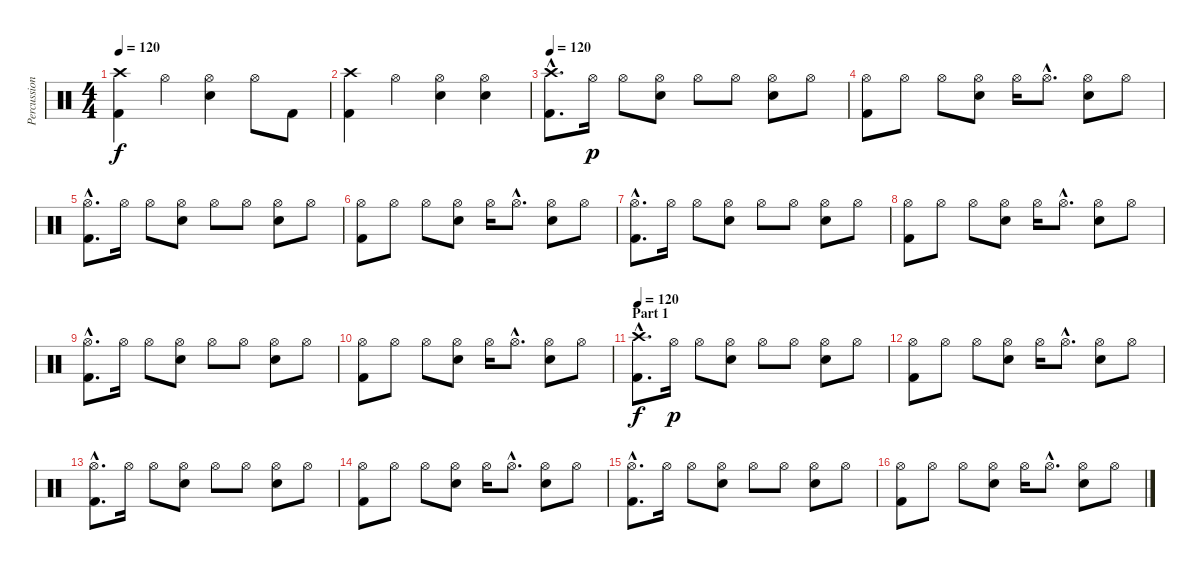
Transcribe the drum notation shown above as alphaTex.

\track ("Percussion" "Percussion") {instrument percussion}
\staff {score}
\articulation defaults
\ts (4 4)
\tempo 120
\clef neutral
\ks c
("Crash high (hit)" "Kick (hit) 2").4{dy f} "Hi-Hat (open)".4 ("Hi-Hat (open)" "Electric Snare (hit)").4 "Hi-Hat (open)".8 "Kick (hit) 2".8 |
("Crash high (hit)" "Kick (hit) 2").4 "Hi-Hat (open)".4 ("Hi-Hat (open)" "Electric Snare (hit)").4 ("Hi-Hat (open)" "Electric Snare (hit)").4 |
\tempo 120
("Crash high (hit)"{hac} "Kick (hit) 2"{hac}).8{d} "Hi-Hat (open)".16{dy p} "Hi-Hat (open)".8 ("Hi-Hat (open)" "Electric Snare (hit)").8 "Hi-Hat (open)".8 "Hi-Hat (open)".8 ("Hi-Hat (open)" "Electric Snare (hit)").8 "Hi-Hat (open)".8 |
("Hi-Hat (open)" "Kick (hit) 2").8 "Hi-Hat (open)".8 "Hi-Hat (open)".8 ("Hi-Hat (open)" "Electric Snare (hit)").8 "Hi-Hat (open)".16 "Hi-Hat (open)"{hac}.8{d} ("Hi-Hat (open)" "Electric Snare (hit)").8 "Hi-Hat (open)".8 |
("Hi-Hat (open)"{hac} "Kick (hit) 2"{hac}).8{d} "Hi-Hat (open)".16 "Hi-Hat (open)".8 ("Hi-Hat (open)" "Electric Snare (hit)").8 "Hi-Hat (open)".8 "Hi-Hat (open)".8 ("Hi-Hat (open)" "Electric Snare (hit)").8 "Hi-Hat (open)".8 |
("Hi-Hat (open)" "Kick (hit) 2").8 "Hi-Hat (open)".8 "Hi-Hat (open)".8 ("Hi-Hat (open)" "Electric Snare (hit)").8 "Hi-Hat (open)".16 "Hi-Hat (open)"{hac}.8{d} ("Hi-Hat (open)" "Electric Snare (hit)").8 "Hi-Hat (open)".8 |
("Hi-Hat (open)"{hac} "Kick (hit) 2"{hac}).8{d} "Hi-Hat (open)".16 "Hi-Hat (open)".8 ("Hi-Hat (open)" "Electric Snare (hit)").8 "Hi-Hat (open)".8 "Hi-Hat (open)".8 ("Hi-Hat (open)" "Electric Snare (hit)").8 "Hi-Hat (open)".8 |
("Hi-Hat (open)" "Kick (hit) 2").8 "Hi-Hat (open)".8 "Hi-Hat (open)".8 ("Hi-Hat (open)" "Electric Snare (hit)").8 "Hi-Hat (open)".16 "Hi-Hat (open)"{hac}.8{d} ("Hi-Hat (open)" "Electric Snare (hit)").8 "Hi-Hat (open)".8 |
("Hi-Hat (open)"{hac} "Kick (hit) 2"{hac}).8{d} "Hi-Hat (open)".16 "Hi-Hat (open)".8 ("Hi-Hat (open)" "Electric Snare (hit)").8 "Hi-Hat (open)".8 "Hi-Hat (open)".8 ("Hi-Hat (open)" "Electric Snare (hit)").8 "Hi-Hat (open)".8 |
("Hi-Hat (open)" "Kick (hit) 2").8 "Hi-Hat (open)".8 "Hi-Hat (open)".8 ("Hi-Hat (open)" "Electric Snare (hit)").8 "Hi-Hat (open)".16 "Hi-Hat (open)"{hac}.8{d} ("Hi-Hat (open)" "Electric Snare (hit)").8 "Hi-Hat (open)".8 |
\section ("" "Part 1")
\tempo 120
("Crash high (hit)"{hac} "Kick (hit) 2"{hac}).8{d dy f} "Hi-Hat (open)".16{dy p} "Hi-Hat (open)".8 ("Hi-Hat (open)" "Electric Snare (hit)").8 "Hi-Hat (open)".8 "Hi-Hat (open)".8 ("Hi-Hat (open)" "Electric Snare (hit)").8 "Hi-Hat (open)".8 |
("Hi-Hat (open)" "Kick (hit) 2").8 "Hi-Hat (open)".8 "Hi-Hat (open)".8 ("Hi-Hat (open)" "Electric Snare (hit)").8 "Hi-Hat (open)".16 "Hi-Hat (open)"{hac}.8{d} ("Hi-Hat (open)" "Electric Snare (hit)").8 "Hi-Hat (open)".8 |
("Hi-Hat (open)"{hac} "Kick (hit) 2"{hac}).8{d} "Hi-Hat (open)".16 "Hi-Hat (open)".8 ("Hi-Hat (open)" "Electric Snare (hit)").8 "Hi-Hat (open)".8 "Hi-Hat (open)".8 ("Hi-Hat (open)" "Electric Snare (hit)").8 "Hi-Hat (open)".8 |
("Hi-Hat (open)" "Kick (hit) 2").8 "Hi-Hat (open)".8 "Hi-Hat (open)".8 ("Hi-Hat (open)" "Electric Snare (hit)").8 "Hi-Hat (open)".16 "Hi-Hat (open)"{hac}.8{d} ("Hi-Hat (open)" "Electric Snare (hit)").8 "Hi-Hat (open)".8 |
("Hi-Hat (open)"{hac} "Kick (hit) 2"{hac}).8{d} "Hi-Hat (open)".16 "Hi-Hat (open)".8 ("Hi-Hat (open)" "Electric Snare (hit)").8 "Hi-Hat (open)".8 "Hi-Hat (open)".8 ("Hi-Hat (open)" "Electric Snare (hit)").8 "Hi-Hat (open)".8 |
("Hi-Hat (open)" "Kick (hit) 2").8 "Hi-Hat (open)".8 "Hi-Hat (open)".8 ("Hi-Hat (open)" "Electric Snare (hit)").8 "Hi-Hat (open)".16 "Hi-Hat (open)"{hac}.8{d} ("Hi-Hat (open)" "Electric Snare (hit)").8 "Hi-Hat (open)".8
